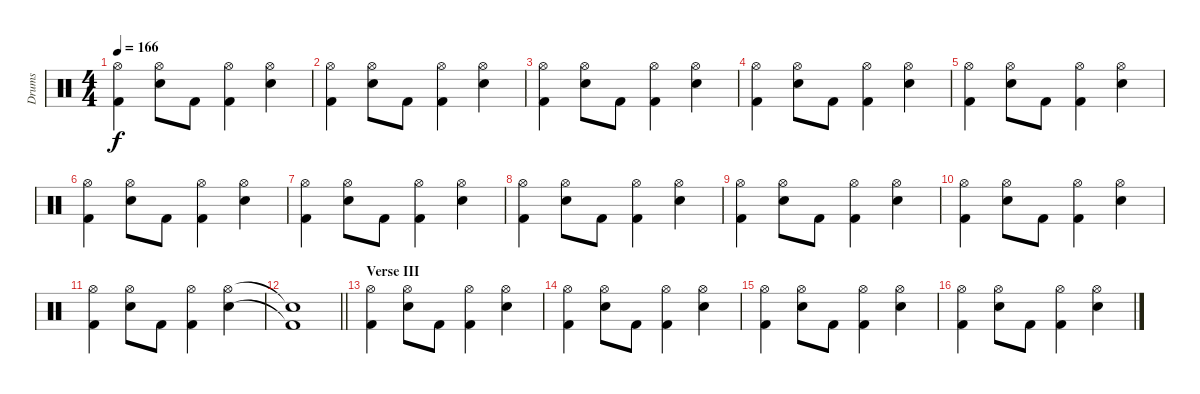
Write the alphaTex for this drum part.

\track ("Drums" "Drums") {instrument percussion}
\staff {score}
\articulation defaults
\ts (4 4)
\tempo 166
\clef neutral
\ks c
("Hi-Hat (open)" "Kick (hit) 2").4{dy f} ("Hi-Hat (open)" "Snare (hit) 2").8 "Kick (hit) 2".8 ("Hi-Hat (open)" "Kick (hit) 2").4 ("Hi-Hat (open)" "Snare (hit) 2").4 |
("Hi-Hat (open)" "Kick (hit) 2").4 ("Hi-Hat (open)" "Snare (hit) 2").8 "Kick (hit) 2".8 ("Hi-Hat (open)" "Kick (hit) 2").4 ("Hi-Hat (open)" "Snare (hit) 2").4 |
("Hi-Hat (open)" "Kick (hit) 2").4 ("Hi-Hat (open)" "Snare (hit) 2").8 "Kick (hit) 2".8 ("Hi-Hat (open)" "Kick (hit) 2").4 ("Hi-Hat (open)" "Snare (hit) 2").4 |
("Hi-Hat (open)" "Kick (hit) 2").4 ("Hi-Hat (open)" "Snare (hit) 2").8 "Kick (hit) 2".8 ("Hi-Hat (open)" "Kick (hit) 2").4 ("Hi-Hat (open)" "Snare (hit) 2").4 |
("Hi-Hat (open)" "Kick (hit) 2").4 ("Hi-Hat (open)" "Snare (hit) 2").8 "Kick (hit) 2".8 ("Hi-Hat (open)" "Kick (hit) 2").4 ("Hi-Hat (open)" "Snare (hit) 2").4 |
("Hi-Hat (open)" "Kick (hit) 2").4 ("Hi-Hat (open)" "Snare (hit) 2").8 "Kick (hit) 2".8 ("Hi-Hat (open)" "Kick (hit) 2").4 ("Hi-Hat (open)" "Snare (hit) 2").4 |
("Hi-Hat (open)" "Kick (hit) 2").4 ("Hi-Hat (open)" "Snare (hit) 2").8 "Kick (hit) 2".8 ("Hi-Hat (open)" "Kick (hit) 2").4 ("Hi-Hat (open)" "Snare (hit) 2").4 |
("Hi-Hat (open)" "Kick (hit) 2").4 ("Hi-Hat (open)" "Snare (hit) 2").8 "Kick (hit) 2".8 ("Hi-Hat (open)" "Kick (hit) 2").4 ("Hi-Hat (open)" "Snare (hit) 2").4 |
("Hi-Hat (open)" "Kick (hit) 2").4 ("Hi-Hat (open)" "Snare (hit) 2").8 "Kick (hit) 2".8 ("Hi-Hat (open)" "Kick (hit) 2").4 ("Hi-Hat (open)" "Snare (hit) 2").4 |
("Hi-Hat (open)" "Kick (hit) 2").4 ("Hi-Hat (open)" "Snare (hit) 2").8 "Kick (hit) 2".8 ("Hi-Hat (open)" "Kick (hit) 2").4 ("Hi-Hat (open)" "Snare (hit) 2").4 |
("Hi-Hat (open)" "Kick (hit) 2").4 ("Hi-Hat (open)" "Snare (hit) 2").8 "Kick (hit) 2".8 ("Hi-Hat (open)" "Kick (hit) 2").4 ("Hi-Hat (open)" "Snare (hit) 2").4 |
\barLineRight lightlight
("Snare (hit)"{t} "Kick (hit) 2"{t}).1 |
\section ("" "Verse III")
("Hi-Hat (open)" "Kick (hit) 2").4 ("Hi-Hat (open)" "Snare (hit) 2").8 "Kick (hit) 2".8 ("Hi-Hat (open)" "Kick (hit) 2").4 ("Hi-Hat (open)" "Snare (hit) 2").4 |
("Hi-Hat (open)" "Kick (hit) 2").4 ("Hi-Hat (open)" "Snare (hit) 2").8 "Kick (hit) 2".8 ("Hi-Hat (open)" "Kick (hit) 2").4 ("Hi-Hat (open)" "Snare (hit) 2").4 |
("Hi-Hat (open)" "Kick (hit) 2").4 ("Hi-Hat (open)" "Snare (hit) 2").8 "Kick (hit) 2".8 ("Hi-Hat (open)" "Kick (hit) 2").4 ("Hi-Hat (open)" "Snare (hit) 2").4 |
("Hi-Hat (open)" "Kick (hit) 2").4 ("Hi-Hat (open)" "Snare (hit) 2").8 "Kick (hit) 2".8 ("Hi-Hat (open)" "Kick (hit) 2").4 ("Hi-Hat (open)" "Snare (hit) 2").4
